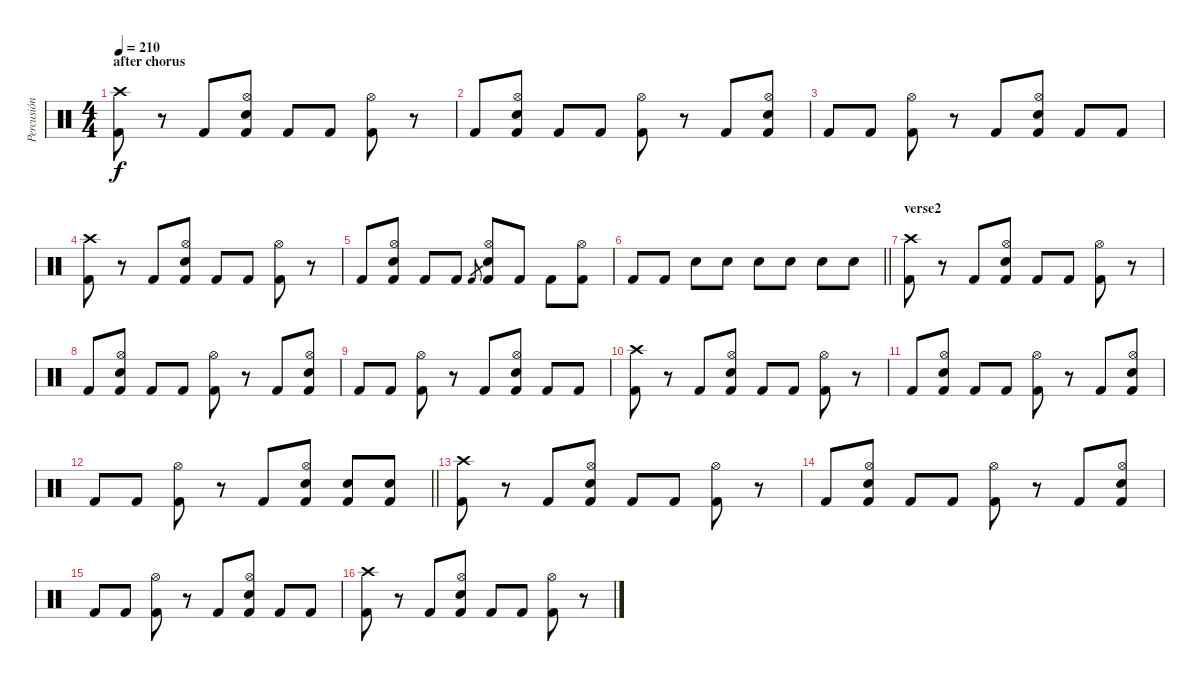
\track ("Percusión" "Percusión") {instrument percussion}
\staff {score}
\articulation defaults
\ts (4 4)
\section ("" "after chorus")
\tempo 210
\clef neutral
\ks c
("Crash high (hit)" "Kick (hit) 2").8{dy f} r.8 "Kick (hit) 2".8 ("Hi-Hat (open)" "Snare (hit) 2" "Kick (hit) 2").8 "Kick (hit) 2".8 "Kick (hit) 2".8 ("Hi-Hat (open)" "Kick (hit) 2").8 r.8 |
"Kick (hit) 2".8 ("Hi-Hat (open)" "Snare (hit) 2" "Kick (hit) 2").8 "Kick (hit) 2".8 "Kick (hit) 2".8 ("Hi-Hat (open)" "Kick (hit) 2").8 r.8 "Kick (hit) 2".8 ("Hi-Hat (open)" "Snare (hit) 2" "Kick (hit) 2").8 |
"Kick (hit) 2".8 "Kick (hit) 2".8 ("Hi-Hat (open)" "Kick (hit) 2").8 r.8 "Kick (hit) 2".8 ("Hi-Hat (open)" "Snare (hit) 2" "Kick (hit) 2").8 "Kick (hit) 2".8 "Kick (hit) 2".8 |
("Crash high (hit)" "Kick (hit) 2").8 r.8 "Kick (hit) 2".8 ("Hi-Hat (open)" "Snare (hit) 2" "Kick (hit) 2").8 "Kick (hit) 2".8 "Kick (hit) 2".8 ("Hi-Hat (open)" "Kick (hit) 2").8 r.8 |
"Kick (hit) 2".8 ("Hi-Hat (open)" "Snare (hit) 2" "Kick (hit) 2").8 "Kick (hit) 2".8 "Kick (hit) 2".8 "Kick (hit) 2".8{gr} ("Hi-Hat (open)" "Snare (hit) 2" "Kick (hit) 2").8 "Kick (hit) 2".8 "Kick (hit) 2".8 ("Hi-Hat (open)" "Kick (hit) 2").8 |
\barLineRight lightlight "Kick (hit) 2".8 "Kick (hit) 2".8 "Electric Snare (hit)".8 "Electric Snare (hit)".8 "Electric Snare (hit)".8 "Electric Snare (hit)".8 "Electric Snare (hit)".8 "Electric Snare (hit)".8
|
\section ("" "verse2")
("Crash high (hit)" "Kick (hit) 2").8 r.8 "Kick (hit) 2".8 ("Hi-Hat (open)" "Snare (hit) 2" "Kick (hit) 2").8 "Kick (hit) 2".8 "Kick (hit) 2".8 ("Hi-Hat (open)" "Kick (hit) 2").8 r.8 |
"Kick (hit) 2".8 ("Hi-Hat (open)" "Snare (hit) 2" "Kick (hit) 2").8 "Kick (hit) 2".8 "Kick (hit) 2".8 ("Hi-Hat (open)" "Kick (hit) 2").8 r.8 "Kick (hit) 2".8 ("Hi-Hat (open)" "Snare (hit) 2" "Kick (hit) 2").8 |
"Kick (hit) 2".8 "Kick (hit) 2".8 ("Hi-Hat (open)" "Kick (hit) 2").8 r.8 "Kick (hit) 2".8 ("Hi-Hat (open)" "Snare (hit) 2" "Kick (hit) 2").8 "Kick (hit) 2".8 "Kick (hit) 2".8 |
("Crash high (hit)" "Kick (hit) 2").8 r.8 "Kick (hit) 2".8 ("Hi-Hat (open)" "Snare (hit) 2" "Kick (hit) 2").8 "Kick (hit) 2".8 "Kick (hit) 2".8 ("Hi-Hat (open)" "Kick (hit) 2").8 r.8 |
"Kick (hit) 2".8 ("Hi-Hat (open)" "Snare (hit) 2" "Kick (hit) 2").8 "Kick (hit) 2".8 "Kick (hit) 2".8 ("Hi-Hat (open)" "Kick (hit) 2").8 r.8 "Kick (hit) 2".8 ("Hi-Hat (open)" "Snare (hit) 2" "Kick (hit) 2").8 |
\barLineRight lightlight "Kick (hit) 2".8 "Kick (hit) 2".8
("Hi-Hat (open)" "Kick (hit) 2").8 r.8 "Kick (hit) 2".8 ("Hi-Hat (open)" "Snare (hit) 2" "Kick (hit) 2").8 ("Snare (hit) 2" "Kick (hit) 2").8 ("Snare (hit) 2" "Kick (hit) 2").8 |
("Crash high (hit)" "Kick (hit) 2").8 r.8 "Kick (hit) 2".8 ("Hi-Hat (open)" "Snare (hit) 2" "Kick (hit) 2").8 "Kick (hit) 2".8 "Kick (hit) 2".8 ("Hi-Hat (open)" "Kick (hit) 2").8 r.8 |
"Kick (hit) 2".8 ("Hi-Hat (open)" "Snare (hit) 2" "Kick (hit) 2").8 "Kick (hit) 2".8 "Kick (hit) 2".8 ("Hi-Hat (open)" "Kick (hit) 2").8 r.8 "Kick (hit) 2".8 ("Hi-Hat (open)" "Snare (hit) 2" "Kick (hit) 2").8 |
"Kick (hit) 2".8 "Kick (hit) 2".8 ("Hi-Hat (open)" "Kick (hit) 2").8 r.8 "Kick (hit) 2".8 ("Hi-Hat (open)" "Snare (hit) 2" "Kick (hit) 2").8 "Kick (hit) 2".8 "Kick (hit) 2".8 |
("Crash high (hit)" "Kick (hit) 2").8 r.8 "Kick (hit) 2".8 ("Hi-Hat (open)" "Snare (hit) 2" "Kick (hit) 2").8 "Kick (hit) 2".8 "Kick (hit) 2".8 ("Hi-Hat (open)" "Kick (hit) 2").8 r.8
